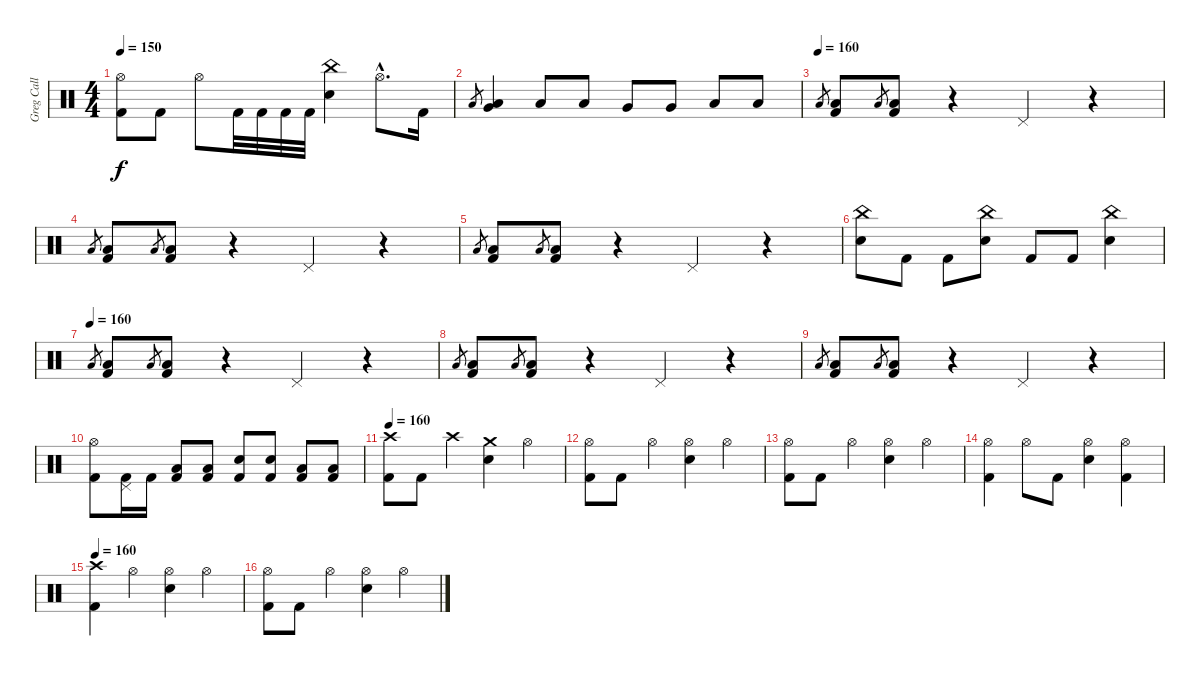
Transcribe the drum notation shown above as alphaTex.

\track ("Greg Call (Drums)" "Greg Call ") {instrument percussion}
\staff {score}
\articulation defaults
\ts (4 4)
\tempo 150
\clef neutral
\ks c
("Hi-Hat (open)" "Kick (hit) 2").8{dy f} "Kick (hit) 2".8 "Hi-Hat (open)".8 "Kick (hit) 2".32 "Kick (hit) 2".32 "Kick (hit) 2".32 "Kick (hit) 2".32 ("China (hit)" "Snare (hit) 2").4 "Hi-Hat (open)"{hac}.8{d} "Kick (hit) 2".16 |
"Low Tom (hit)".8{gr} ("Low Tom (hit)" "Very Low Tom (hit)").4 "Low Tom (hit)".8 "Low Tom (hit)".8 "Very Low Tom (hit)".8 "Very Low Tom (hit)".8 "Low Floor Tom (hit)".8 "Low Floor Tom (hit)".8 |
\tempo (160)
"Low Floor Tom (hit)".8{gr} ("Low Floor Tom (hit)" "Kick (hit) 2").8{volume 16} "Low Floor Tom (hit)".8{gr} ("Low Floor Tom (hit)" "Kick (hit) 2").8 r.4 "Pedal Hi-Hat (hit)".4 r.4 |
"Low Floor Tom (hit)".8{gr} ("Low Floor Tom (hit)" "Kick (hit) 2").8{volume 16} "Low Floor Tom (hit)".8{gr} ("Low Floor Tom (hit)" "Kick (hit) 2").8 r.4 "Pedal Hi-Hat (hit)".4 r.4 |
"Low Floor Tom (hit)".8{gr} ("Low Floor Tom (hit)" "Kick (hit) 2").8{volume 16} "Low Floor Tom (hit)".8{gr} ("Low Floor Tom (hit)" "Kick (hit) 2").8 r.4 "Pedal Hi-Hat (hit)".4 r.4 |
("China (hit)" "Snare (hit) 2").8 "Kick (hit) 2".8 "Kick (hit) 2".8 ("China (hit)" "Snare (hit) 2").8 "Kick (hit) 2".8 "Kick (hit) 2".8 ("China (hit)" "Snare (hit) 2").4 |
\tempo (160)
"Low Floor Tom (hit)".8{gr} ("Low Floor Tom (hit)" "Kick (hit) 2").8{volume 16} "Low Floor Tom (hit)".8{gr} ("Low Floor Tom (hit)" "Kick (hit) 2").8 r.4 "Pedal Hi-Hat (hit)".4 r.4 |
"Low Floor Tom (hit)".8{gr} ("Low Floor Tom (hit)" "Kick (hit) 2").8{volume 16} "Low Floor Tom (hit)".8{gr} ("Low Floor Tom (hit)" "Kick (hit) 2").8 r.4 "Pedal Hi-Hat (hit)".4 r.4 |
"Low Floor Tom (hit)".8{gr} ("Low Floor Tom (hit)" "Kick (hit) 2").8{volume 16} "Low Floor Tom (hit)".8{gr} ("Low Floor Tom (hit)" "Kick (hit) 2").8 r.4 "Pedal Hi-Hat (hit)".4 r.4 |
("Hi-Hat (open)" "Kick (hit) 2").8 ("Pedal Hi-Hat (hit)" "Kick (hit) 2").16 "Kick (hit) 2".16 ("Low Tom (hit)" "Kick (hit) 2").8 ("Low Tom (hit)" "Kick (hit) 2").8 ("Snare (hit) 2" "Kick (hit) 2").8 ("Snare (hit) 2" "Kick (hit) 2").8 ("Low Floor Tom (hit)" "Kick (hit) 2").8 ("Low Floor Tom (hit)" "Kick (hit) 2").8 |
\tempo 160
("Crash high (hit)" "Kick (hit) 2").8 "Kick (hit) 2".8 "Crash high (hit)".4 ("Crash medium (hit)" "Snare (hit) 2").4 "Hi-Hat (open)".4 |
("Hi-Hat (open)" "Kick (hit) 2").8 "Kick (hit) 2".8 "Hi-Hat (open)".4 ("Hi-Hat (open)" "Snare (hit) 2").4 "Hi-Hat (open)".4 |
("Hi-Hat (open)" "Kick (hit) 2").8 "Kick (hit) 2".8 "Hi-Hat (open)".4 ("Hi-Hat (open)" "Snare (hit) 2").4 "Hi-Hat (open)".4 |
("Hi-Hat (open)" "Kick (hit) 2").4 "Hi-Hat (open)".8 "Kick (hit) 2".8 ("Hi-Hat (open)" "Snare (hit) 2").4 ("Hi-Hat (open)" "Kick (hit) 2").4 |
\tempo 160
("Crash high (hit)" "Kick (hit) 2").4 "Hi-Hat (open)".4 ("Hi-Hat (open)" "Snare (hit) 2").4 "Hi-Hat (open)".4 |
("Hi-Hat (open)" "Kick (hit) 2").8 "Kick (hit) 2".8 "Hi-Hat (open)".4 ("Hi-Hat (open)" "Snare (hit) 2").4 "Hi-Hat (open)".4
